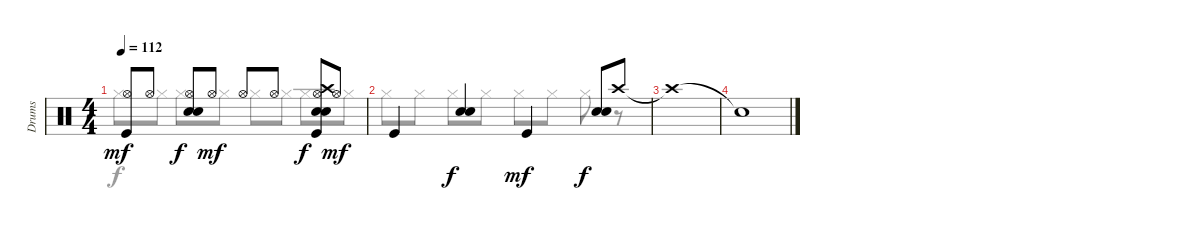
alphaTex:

\track ("Drums" "Drums") {instrument percussion}
\staff {score}
\articulation defaults
\voice
\ts (4 4)
\tempo 112
\clef neutral
\ks c
("Hi-Hat (open)" "Kick (hit)").8{dy mf} "Hi-Hat (open)".8 ("Hi-Hat (open)" "Electric Snare (hit)" "Snare (hit) 2").8{dy f} "Hi-Hat (open)".8{dy mf} "Hi-Hat (open)".8 "Hi-Hat (open)".8 ("Hi-Hat (open)" "Crash high (hit)" "Electric Snare (hit)" "Snare (hit) 2" "Kick (hit)").8{dy f} "Hi-Hat (open)".8{dy mf} |
"Kick (hit)".4 ("Electric Snare (hit)" "Snare (hit) 2").4{dy f} "Kick (hit)".4{dy mf} ("Electric Snare (hit)" "Snare (hit) 2").8{dy f} "Crash high (hit)".8 |
"Crash high (hit)"{t}.1 |
"Snare (hit)"{t}.1
\voice
\clef neutral
\ottava regular
\simile none
\ks c "Hi-Hat (closed)".8{dy f} "Hi-Hat (closed)".8 "Hi-Hat (closed)".8 "Hi-Hat (closed)".8 "Hi-Hat (closed)".8 "Hi-Hat (closed)".8 "Hi-Hat (closed)".8 "Hi-Hat (closed)".8
|
"Hi-Hat (closed)".8 "Hi-Hat (closed)".8 "Hi-Hat (closed)".8 "Hi-Hat (closed)".8 "Hi-Hat (closed)".8 "Hi-Hat (closed)".8 "Hi-Hat (closed)".8 r.8 |
|
